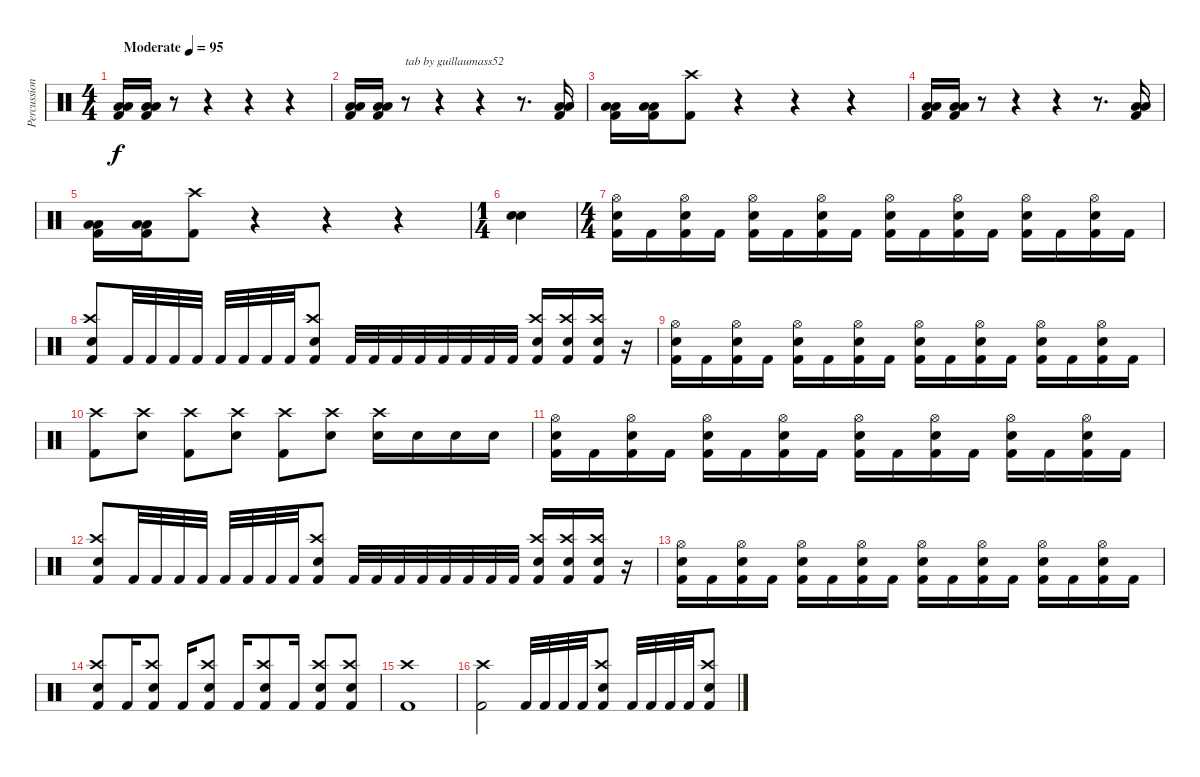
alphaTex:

\track ("Percussions" "Percussion") {instrument percussion}
\staff {score}
\articulation defaults
\ts (4 4)
\tempo (95 "Moderate")
\clef neutral
\ks c
("Low Tom (hit)" "Low Floor Tom (hit)" "Kick (hit) 2").16{dy f} ("Low Tom (hit)" "Low Floor Tom (hit)" "Kick (hit) 2").16 r.8 r.4 r.4 r.4 |
("Low Tom (hit)" "Low Floor Tom (hit)" "Kick (hit) 2").16 ("Low Tom (hit)" "Low Floor Tom (hit)" "Kick (hit) 2").16 r.8{txt "tab by guillaumass52"} r.4 r.4 r.8{d} ("Low Tom (hit)" "Low Floor Tom (hit)" "Kick (hit) 2").16 |
("Low Tom (hit)" "Low Floor Tom (hit)" "Kick (hit) 2").16 ("Low Tom (hit)" "Low Floor Tom (hit)" "Kick (hit) 2").16 ("Crash high (hit)" "Kick (hit) 2").8 r.4 r.4 r.4 |
("Low Tom (hit)" "Low Floor Tom (hit)" "Kick (hit) 2").16 ("Low Tom (hit)" "Low Floor Tom (hit)" "Kick (hit) 2").16 r.8 r.4 r.4 r.8{d} ("Low Tom (hit)" "Low Floor Tom (hit)" "Kick (hit) 2").16 |
("Low Tom (hit)" "Low Floor Tom (hit)" "Kick (hit) 2").16 ("Low Tom (hit)" "Low Floor Tom (hit)" "Kick (hit) 2").16 ("Crash high (hit)" "Kick (hit) 2").8 r.4 r.4 r.4 |
\ts (1 4)
("Snare (hit) 2" "Snare (hit) 2").4 |
\ts (4 4)
("Hi-Hat (open)" "Snare (hit) 2" "Kick (hit) 2").16 "Kick (hit) 2".16 ("Hi-Hat (open)" "Snare (hit) 2" "Kick (hit) 2").16 "Kick (hit) 2".16 ("Hi-Hat (open)" "Snare (hit) 2" "Kick (hit) 2").16 "Kick (hit) 2".16 ("Hi-Hat (open)" "Snare (hit) 2" "Kick (hit) 2").16 "Kick (hit) 2".16 ("Hi-Hat (open)" "Snare (hit) 2" "Kick (hit) 2").16 "Kick (hit) 2".16 ("Hi-Hat (open)" "Snare (hit) 2" "Kick (hit) 2").16 "Kick (hit) 2".16 ("Hi-Hat (open)" "Snare (hit) 2" "Kick (hit) 2").16 "Kick (hit) 2".16 ("Hi-Hat (open)" "Snare (hit) 2" "Kick (hit) 2").16 "Kick (hit) 2".16 |
("Crash high (hit)" "Snare (hit) 2" "Kick (hit) 2").8 "Kick (hit) 2".32 "Kick (hit) 2".32 "Kick (hit) 2".32 "Kick (hit) 2".32 "Kick (hit) 2".32 "Kick (hit) 2".32 "Kick (hit) 2".32 "Kick (hit) 2".32 ("Crash high (hit)" "Snare (hit) 2" "Kick (hit) 2").8 "Kick (hit) 2".32 "Kick (hit) 2".32 "Kick (hit) 2".32 "Kick (hit) 2".32 "Kick (hit) 2".32 "Kick (hit) 2".32 "Kick (hit) 2".32 "Kick (hit) 2".32 ("Crash high (hit)" "Snare (hit) 2" "Kick (hit) 2").16 ("Crash high (hit)" "Snare (hit) 2" "Kick (hit) 2").16 ("Crash high (hit)" "Snare (hit) 2" "Kick (hit) 2").16 r.16 |
("Hi-Hat (open)" "Snare (hit) 2" "Kick (hit) 2").16 "Kick (hit) 2".16 ("Hi-Hat (open)" "Snare (hit) 2" "Kick (hit) 2").16 "Kick (hit) 2".16 ("Hi-Hat (open)" "Snare (hit) 2" "Kick (hit) 2").16 "Kick (hit) 2".16 ("Hi-Hat (open)" "Snare (hit) 2" "Kick (hit) 2").16 "Kick (hit) 2".16 ("Hi-Hat (open)" "Snare (hit) 2" "Kick (hit) 2").16 "Kick (hit) 2".16 ("Hi-Hat (open)" "Snare (hit) 2" "Kick (hit) 2").16 "Kick (hit) 2".16 ("Hi-Hat (open)" "Snare (hit) 2" "Kick (hit) 2").16 "Kick (hit) 2".16 ("Hi-Hat (open)" "Snare (hit) 2" "Kick (hit) 2").16 "Kick (hit) 2".16 |
("Crash high (hit)" "Kick (hit) 2").8 ("Crash high (hit)" "Snare (hit) 2").8 ("Crash high (hit)" "Kick (hit) 2").8 ("Crash high (hit)" "Snare (hit) 2").8 ("Crash high (hit)" "Kick (hit) 2").8 ("Crash high (hit)" "Snare (hit) 2").8 ("Crash high (hit)" "Snare (hit) 2").16 "Snare (hit) 2".16 "Snare (hit) 2".16 "Snare (hit) 2".16 |
("Hi-Hat (open)" "Snare (hit) 2" "Kick (hit) 2").16 "Kick (hit) 2".16 ("Hi-Hat (open)" "Snare (hit) 2" "Kick (hit) 2").16 "Kick (hit) 2".16 ("Hi-Hat (open)" "Snare (hit) 2" "Kick (hit) 2").16 "Kick (hit) 2".16 ("Hi-Hat (open)" "Snare (hit) 2" "Kick (hit) 2").16 "Kick (hit) 2".16 ("Hi-Hat (open)" "Snare (hit) 2" "Kick (hit) 2").16 "Kick (hit) 2".16 ("Hi-Hat (open)" "Snare (hit) 2" "Kick (hit) 2").16 "Kick (hit) 2".16 ("Hi-Hat (open)" "Snare (hit) 2" "Kick (hit) 2").16 "Kick (hit) 2".16 ("Hi-Hat (open)" "Snare (hit) 2" "Kick (hit) 2").16 "Kick (hit) 2".16 |
("Crash high (hit)" "Snare (hit) 2" "Kick (hit) 2").8 "Kick (hit) 2".32 "Kick (hit) 2".32 "Kick (hit) 2".32 "Kick (hit) 2".32 "Kick (hit) 2".32 "Kick (hit) 2".32 "Kick (hit) 2".32 "Kick (hit) 2".32 ("Crash high (hit)" "Snare (hit) 2" "Kick (hit) 2").8 "Kick (hit) 2".32 "Kick (hit) 2".32 "Kick (hit) 2".32 "Kick (hit) 2".32 "Kick (hit) 2".32 "Kick (hit) 2".32 "Kick (hit) 2".32 "Kick (hit) 2".32 ("Crash high (hit)" "Snare (hit) 2" "Kick (hit) 2").16 ("Crash high (hit)" "Snare (hit) 2" "Kick (hit) 2").16 ("Crash high (hit)" "Snare (hit) 2" "Kick (hit) 2").16 r.16 |
("Hi-Hat (open)" "Snare (hit) 2" "Kick (hit) 2").16 "Kick (hit) 2".16 ("Hi-Hat (open)" "Snare (hit) 2" "Kick (hit) 2").16 "Kick (hit) 2".16 ("Hi-Hat (open)" "Snare (hit) 2" "Kick (hit) 2").16 "Kick (hit) 2".16 ("Hi-Hat (open)" "Snare (hit) 2" "Kick (hit) 2").16 "Kick (hit) 2".16 ("Hi-Hat (open)" "Snare (hit) 2" "Kick (hit) 2").16 "Kick (hit) 2".16 ("Hi-Hat (open)" "Snare (hit) 2" "Kick (hit) 2").16 "Kick (hit) 2".16 ("Hi-Hat (open)" "Snare (hit) 2" "Kick (hit) 2").16 "Kick (hit) 2".16 ("Hi-Hat (open)" "Snare (hit) 2" "Kick (hit) 2").16 "Kick (hit) 2".16 |
("Crash high (hit)" "Snare (hit) 2" "Kick (hit) 2").8 "Kick (hit) 2".16 ("Crash high (hit)" "Snare (hit) 2" "Kick (hit) 2").8 "Kick (hit) 2".16 ("Crash high (hit)" "Snare (hit) 2" "Kick (hit) 2").8 "Kick (hit) 2".16 ("Crash high (hit)" "Snare (hit) 2" "Kick (hit) 2").8 "Kick (hit) 2".16 ("Crash high (hit)" "Snare (hit) 2" "Kick (hit) 2").8 ("Crash high (hit)" "Snare (hit) 2" "Kick (hit) 2").8 |
("Crash high (hit)" "Kick (hit) 2").1 |
("Crash high (hit)" "Kick (hit) 2").2 "Kick (hit) 2".32 "Kick (hit) 2".32 "Kick (hit) 2".32 "Kick (hit) 2".32 ("Crash high (hit)" "Snare (hit) 2" "Kick (hit) 2").8 "Kick (hit) 2".32 "Kick (hit) 2".32 "Kick (hit) 2".32 "Kick (hit) 2".32 ("Crash high (hit)" "Snare (hit) 2" "Kick (hit) 2").8
